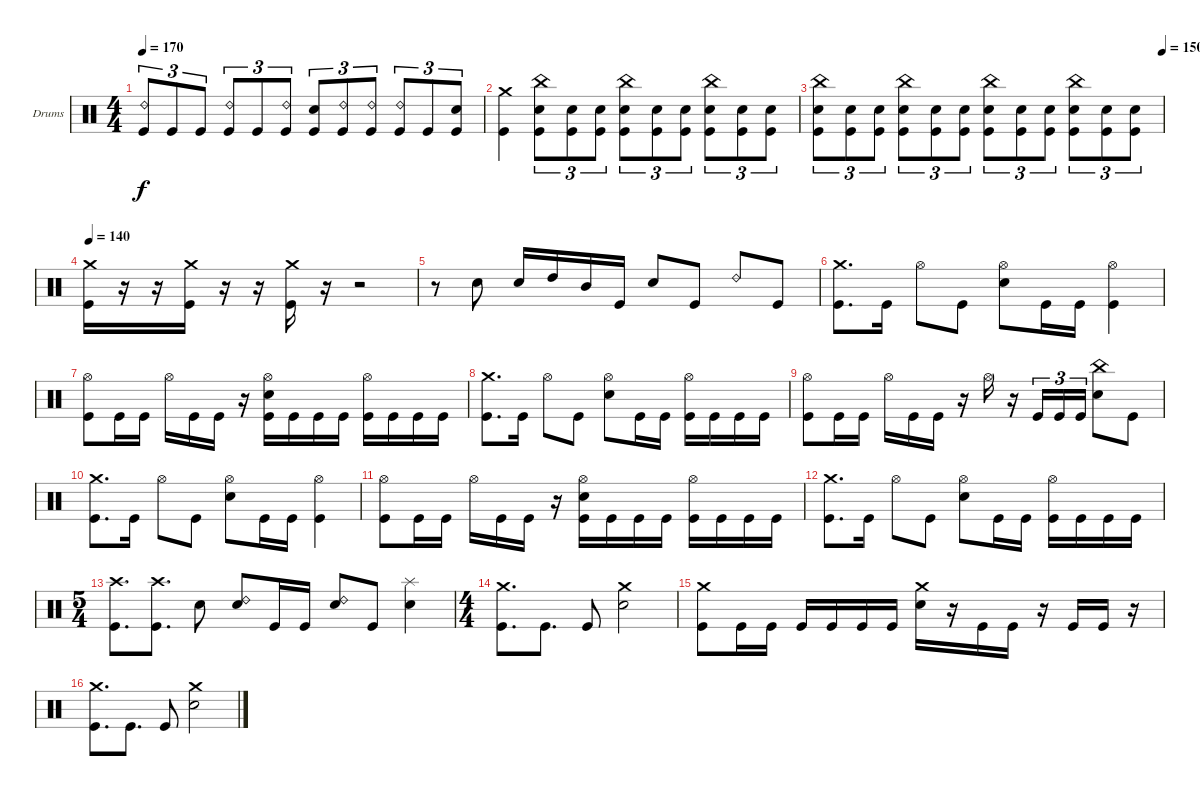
\bracketExtendMode groupsimilarinstruments
\firstSystemTrackNameOrientation horizontal
\otherSystemsTrackNameOrientation horizontal
\track ("Drumkit" "Drums") {instrument percussion}
\staff {score}
\articulation defaults
\ts (4 4)
\tempo 170
\clef neutral
\ks c
("Ride (bell) 2" "Kick (hit)").8{tu (3 2) dy f} "Kick (hit)".8{tu (3 2)} "Kick (hit)".8{tu (3 2)} ("Ride (bell) 2" "Kick (hit)").8{tu (3 2)} "Kick (hit)".8{tu (3 2)} ("Ride (bell) 2" "Kick (hit)").8{tu (3 2)} ("Snare (hit) 2" "Kick (hit)").8{tu (3 2)} ("Ride (bell) 2" "Kick (hit)").8{tu (3 2)} ("Ride (bell) 2" "Kick (hit)").8{tu (3 2)} ("Ride (bell) 2" "Kick (hit)").8{tu (3 2)} "Kick (hit)".8{tu (3 2)} ("Snare (hit) 2" "Kick (hit)").8{tu (3 2)} |
("Crash medium (hit)" "Kick (hit)").4 ("China (hit)" "Snare (hit) 2" "Kick (hit)").8{tu (3 2)} ("Snare (hit) 2" "Kick (hit)").8{tu (3 2)} ("Snare (hit) 2" "Kick (hit)").8{tu (3 2)} ("China (hit)" "Snare (hit) 2" "Kick (hit)").8{tu (3 2)} ("Snare (hit) 2" "Kick (hit)").8{tu (3 2)} ("Snare (hit) 2" "Kick (hit)").8{tu (3 2)} ("China (hit)" "Snare (hit) 2" "Kick (hit)").8{tu (3 2)} ("Snare (hit) 2" "Kick (hit)").8{tu (3 2)} ("Snare (hit) 2" "Kick (hit)").8{tu (3 2)} |
\tempo (150 1)
("China (hit)" "Snare (hit) 2" "Kick (hit)").8{tu (3 2)} ("Snare (hit) 2" "Kick (hit)").8{tu (3 2)} ("Snare (hit) 2" "Kick (hit)").8{tu (3 2)} ("China (hit)" "Snare (hit) 2" "Kick (hit)").8{tu (3 2)} ("Snare (hit) 2" "Kick (hit)").8{tu (3 2)} ("Snare (hit) 2" "Kick (hit)").8{tu (3 2)} ("China (hit)" "Snare (hit) 2" "Kick (hit)").8{tu (3 2)} ("Snare (hit) 2" "Kick (hit)").8{tu (3 2)} ("Snare (hit) 2" "Kick (hit)").8{tu (3 2)} ("China (hit)" "Snare (hit) 2" "Kick (hit)").8{tu (3 2)} ("Snare (hit) 2" "Kick (hit)").8{tu (3 2)} ("Snare (hit) 2" "Kick (hit)").8{tu (3 2)} |
\tempo 140
("Crash medium (hit)" "Kick (hit)").16 r.16 r.16 ("Crash medium (hit)" "Kick (hit)").16 r.16 r.16 ("Crash medium (hit)" "Kick (hit)").16 r.16 r.2 |
r.8 "Snare (hit) 2".8 "Snare (hit) 2".16 "High Tom (hit)".16 "Mid Tom (hit)".16 "Kick (hit)".16 "Snare (hit) 2".8 "Kick (hit)".8 "Ride (bell) 2".8 "Kick (hit)".8 |
("Crash medium (hit)" "Kick (hit)").8{d} "Kick (hit)".16 "Hi-Hat (open)".8 "Kick (hit)".8 ("Hi-Hat (open)" "Snare (hit) 2").8 "Kick (hit)".16 "Kick (hit)".16 ("Hi-Hat (open)" "Kick (hit)").4 |
("Hi-Hat (open)" "Kick (hit)").8 "Kick (hit)".16 "Kick (hit)".16 "Hi-Hat (open)".16 "Kick (hit)".16 "Kick (hit)".16 r.16 ("Hi-Hat (open)" "Snare (hit) 2" "Kick (hit)").16 "Kick (hit)".16 "Kick (hit)".16 "Kick (hit)".16 ("Hi-Hat (open)" "Kick (hit)").16 "Kick (hit)".16 "Kick (hit)".16 "Kick (hit)".16 |
("Crash medium (hit)" "Kick (hit)").8{d} "Kick (hit)".16 "Hi-Hat (open)".8 "Kick (hit)".8 ("Hi-Hat (open)" "Snare (hit) 2").8 "Kick (hit)".16 "Kick (hit)".16 ("Hi-Hat (open)" "Kick (hit)").16 "Kick (hit)".16 "Kick (hit)".16 "Kick (hit)".16 |
("Hi-Hat (open)" "Kick (hit)").8 "Kick (hit)".16 "Kick (hit)".16 "Hi-Hat (open)".16 "Kick (hit)".16 "Kick (hit)".16 r.16 "Hi-Hat (open)".16 r.16 "Kick (hit)".16{tu (3 2)} "Kick (hit)".16{tu (3 2)} "Kick (hit)".16{tu (3 2)} ("China (hit)" "Snare (hit) 2").8 "Kick (hit)".8 |
("Crash medium (hit)" "Kick (hit)").8{d} "Kick (hit)".16 "Hi-Hat (open)".8 "Kick (hit)".8 ("Hi-Hat (open)" "Snare (hit) 2").8 "Kick (hit)".16 "Kick (hit)".16 ("Hi-Hat (open)" "Kick (hit)").4 |
("Hi-Hat (open)" "Kick (hit)").8 "Kick (hit)".16 "Kick (hit)".16 "Hi-Hat (open)".16 "Kick (hit)".16 "Kick (hit)".16 r.16 ("Hi-Hat (open)" "Snare (hit) 2" "Kick (hit)").16 "Kick (hit)".16 "Kick (hit)".16 "Kick (hit)".16 ("Hi-Hat (open)" "Kick (hit)").16 "Kick (hit)".16 "Kick (hit)".16 "Kick (hit)".16 |
("Crash medium (hit)" "Kick (hit)").8{d} "Kick (hit)".16 "Hi-Hat (open)".8 "Kick (hit)".8 ("Hi-Hat (open)" "Snare (hit) 2").8 "Kick (hit)".16 "Kick (hit)".16 ("Hi-Hat (open)" "Kick (hit)").16 "Kick (hit)".16 "Kick (hit)".16 "Kick (hit)".16 |
\ts (5 4)
("Crash high (hit)" "Kick (hit)").8{d} ("Crash high (hit)" "Kick (hit)").8{d} "Snare (hit) 2".8 ("Ride (bell) 2" "Snare (hit) 2").8 "Kick (hit)".16 "Kick (hit)".16 ("Ride (bell) 2" "Snare (hit) 2").8 "Kick (hit)".8 ("Splash (hit)" "Snare (hit) 2").4 |
\ts (4 4)
("Crash medium (hit)" "Kick (hit)").8{d} "Kick (hit)".8{d} "Kick (hit)".8 ("Crash medium (hit)" "Snare (hit) 2").2 |
("Crash medium (hit)" "Kick (hit)").8 "Kick (hit)".16 "Kick (hit)".16 "Kick (hit)".16 "Kick (hit)".16 "Kick (hit)".16 "Kick (hit)".16 ("Crash medium (hit)" "Snare (hit) 2").16 r.16 "Kick (hit)".16 "Kick (hit)".16 r.16 "Kick (hit)".16 "Kick (hit)".16 r.16 |
("Crash medium (hit)" "Kick (hit)").8{d} "Kick (hit)".8{d} "Kick (hit)".8 ("Crash medium (hit)" "Snare (hit) 2").2
